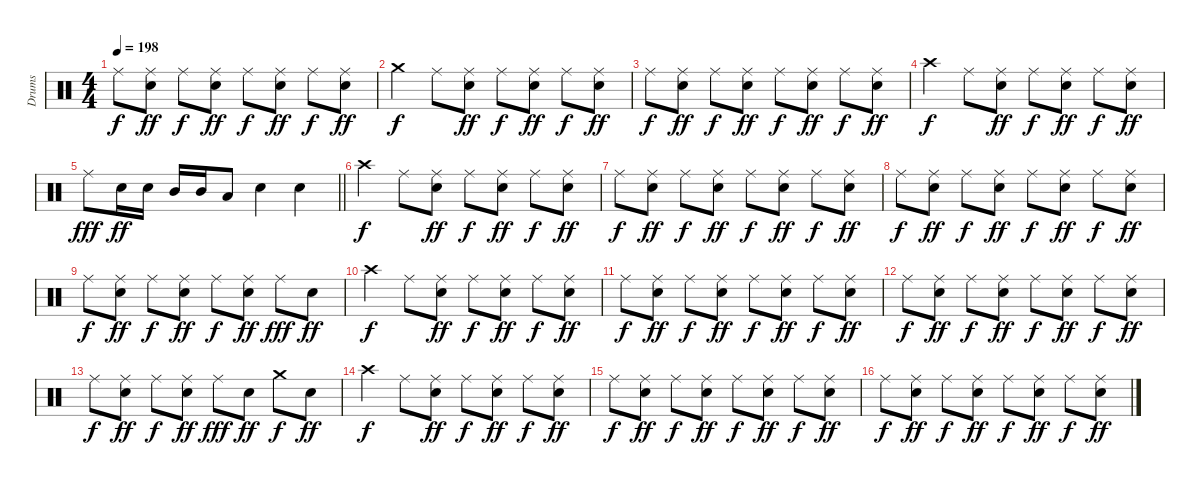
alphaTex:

\track ("Drums" "Drums") {instrument percussion}
\staff {score}
\articulation defaults
\ts (4 4)
\tempo 198
\clef neutral
\ks c "Ride (middle)".8{dy f}
("Ride (middle)" "Snare (hit) 2").8{dy ff} "Ride (middle)".8{dy f} ("Ride (middle)" "Snare (hit) 2").8{dy ff} "Ride (middle)".8{dy f} ("Ride (middle)" "Snare (hit) 2").8{dy ff} "Ride (middle)".8{dy f} ("Ride (middle)" "Snare (hit) 2").8{dy ff} |
"Crash medium (hit)".4{dy f} "Ride (middle)".8 ("Ride (middle)" "Snare (hit) 2").8{dy ff} "Ride (middle)".8{dy f} ("Ride (middle)" "Snare (hit) 2").8{dy ff} "Ride (middle)".8{dy f} ("Ride (middle)" "Snare (hit) 2").8{dy ff} |
"Ride (middle)".8{dy f} ("Ride (middle)" "Snare (hit) 2").8{dy ff} "Ride (middle)".8{dy f} ("Ride (middle)" "Snare (hit) 2").8{dy ff} "Ride (middle)".8{dy f} ("Ride (middle)" "Snare (hit) 2").8{dy ff} "Ride (middle)".8{dy f} ("Ride (middle)" "Snare (hit) 2").8{dy ff} |
"Crash high (hit)".4{dy f} "Ride (middle)".8 ("Ride (middle)" "Snare (hit) 2").8{dy ff} "Ride (middle)".8{dy f} ("Ride (middle)" "Snare (hit) 2").8{dy ff} "Ride (middle)".8{dy f} ("Ride (middle)" "Snare (hit) 2").8{dy ff} |
\barLineRight lightlight "Ride (middle)".8{dy fff} "Snare (hit) 2".16{dy ff} "Snare (hit) 2".16 "Mid Tom (hit)".16 "Mid Tom (hit)".16 "Low Tom (hit)".8 "Snare (hit) 2".4 "Snare (hit) 2".4
|
\section ("" "")
"Crash high (hit)".4{dy f} "Ride (middle)".8 ("Ride (middle)" "Snare (hit) 2").8{dy ff} "Ride (middle)".8{dy f} ("Ride (middle)" "Snare (hit) 2").8{dy ff} "Ride (middle)".8{dy f} ("Ride (middle)" "Snare (hit) 2").8{dy ff} |
"Ride (middle)".8{dy f} ("Ride (middle)" "Snare (hit) 2").8{dy ff} "Ride (middle)".8{dy f} ("Ride (middle)" "Snare (hit) 2").8{dy ff} "Ride (middle)".8{dy f} ("Ride (middle)" "Snare (hit) 2").8{dy ff} "Ride (middle)".8{dy f} ("Ride (middle)" "Snare (hit) 2").8{dy ff} |
"Ride (middle)".8{dy f} ("Ride (middle)" "Snare (hit) 2").8{dy ff} "Ride (middle)".8{dy f} ("Ride (middle)" "Snare (hit) 2").8{dy ff} "Ride (middle)".8{dy f} ("Ride (middle)" "Snare (hit) 2").8{dy ff} "Ride (middle)".8{dy f} ("Ride (middle)" "Snare (hit) 2").8{dy ff} |
"Ride (middle)".8{dy f} ("Ride (middle)" "Snare (hit) 2").8{dy ff} "Ride (middle)".8{dy f} ("Ride (middle)" "Snare (hit) 2").8{dy ff} "Ride (middle)".8{dy f} ("Ride (middle)" "Snare (hit) 2").8{dy ff} "Ride (middle)".8{dy fff} "Snare (hit) 2".8{dy ff} |
"Crash high (hit)".4{dy f} "Ride (middle)".8 ("Ride (middle)" "Snare (hit) 2").8{dy ff} "Ride (middle)".8{dy f} ("Ride (middle)" "Snare (hit) 2").8{dy ff} "Ride (middle)".8{dy f} ("Ride (middle)" "Snare (hit) 2").8{dy ff} |
"Ride (middle)".8{dy f} ("Ride (middle)" "Snare (hit) 2").8{dy ff} "Ride (middle)".8{dy f} ("Ride (middle)" "Snare (hit) 2").8{dy ff} "Ride (middle)".8{dy f} ("Ride (middle)" "Snare (hit) 2").8{dy ff} "Ride (middle)".8{dy f} ("Ride (middle)" "Snare (hit) 2").8{dy ff} |
"Ride (middle)".8{dy f} ("Ride (middle)" "Snare (hit) 2").8{dy ff} "Ride (middle)".8{dy f} ("Ride (middle)" "Snare (hit) 2").8{dy ff} "Ride (middle)".8{dy f} ("Ride (middle)" "Snare (hit) 2").8{dy ff} "Ride (middle)".8{dy f} ("Ride (middle)" "Snare (hit) 2").8{dy ff} |
"Ride (middle)".8{dy f} ("Ride (middle)" "Snare (hit) 2").8{dy ff} "Ride (middle)".8{dy f} ("Ride (middle)" "Snare (hit) 2").8{dy ff} "Ride (middle)".8{dy fff} "Snare (hit) 2".8{dy ff} "Crash medium (hit)".8{dy f} "Snare (hit) 2".8{dy ff} |
"Crash high (hit)".4{dy f} "Ride (middle)".8 ("Ride (middle)" "Snare (hit) 2").8{dy ff} "Ride (middle)".8{dy f} ("Ride (middle)" "Snare (hit) 2").8{dy ff} "Ride (middle)".8{dy f} ("Ride (middle)" "Snare (hit) 2").8{dy ff} |
"Ride (middle)".8{dy f} ("Ride (middle)" "Snare (hit) 2").8{dy ff} "Ride (middle)".8{dy f} ("Ride (middle)" "Snare (hit) 2").8{dy ff} "Ride (middle)".8{dy f} ("Ride (middle)" "Snare (hit) 2").8{dy ff} "Ride (middle)".8{dy f} ("Ride (middle)" "Snare (hit) 2").8{dy ff} |
"Ride (middle)".8{dy f} ("Ride (middle)" "Snare (hit) 2").8{dy ff} "Ride (middle)".8{dy f} ("Ride (middle)" "Snare (hit) 2").8{dy ff} "Ride (middle)".8{dy f} ("Ride (middle)" "Snare (hit) 2").8{dy ff} "Ride (middle)".8{dy f} ("Ride (middle)" "Snare (hit) 2").8{dy ff}
